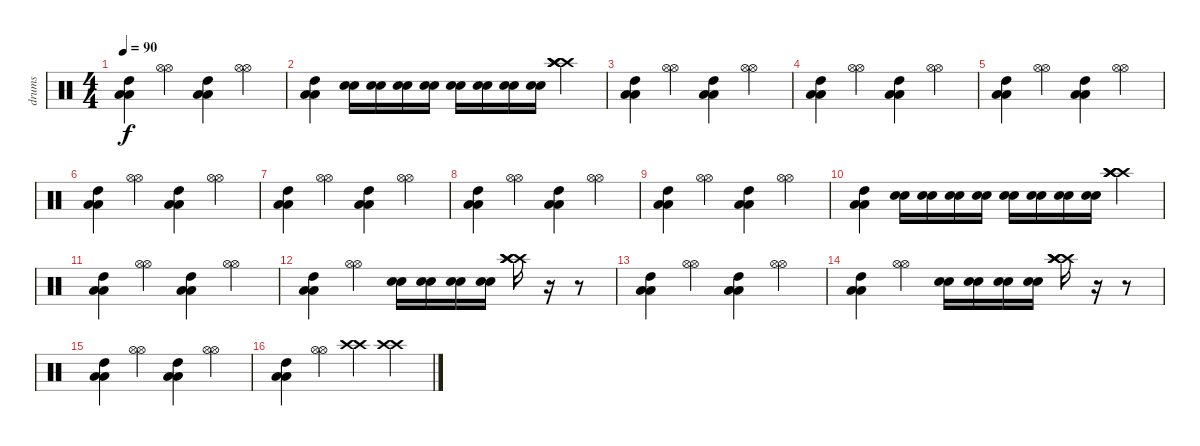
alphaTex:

\track ("drums" "drums") {instrument percussion}
\staff {score}
\articulation defaults
\ts (4 4)
\tempo 90
\clef neutral
\ks c
("High Tom (hit)" "Low Floor Tom (hit)" "Low Floor Tom (hit)").4{dy f} ("Hi-Hat (open)" "Hi-Hat (open)").4 ("High Tom (hit)" "Low Floor Tom (hit)" "Low Floor Tom (hit)").4 ("Hi-Hat (open)" "Hi-Hat (open)").4 |
("High Tom (hit)" "Low Floor Tom (hit)" "Low Floor Tom (hit)").4 ("Electric Snare (hit)" "Electric Snare (hit)").16 ("Electric Snare (hit)" "Electric Snare (hit)").16 ("Electric Snare (hit)" "Electric Snare (hit)").16 ("Electric Snare (hit)" "Electric Snare (hit)").16 ("Electric Snare (hit)" "Electric Snare (hit)").16 ("Electric Snare (hit)" "Electric Snare (hit)").16 ("Electric Snare (hit)" "Electric Snare (hit)").16 ("Electric Snare (hit)" "Electric Snare (hit)").16 ("Crash high (hit)" "Crash high (hit)" "Crash high (hit)" "Crash high (hit)").4 |
("High Tom (hit)" "Low Floor Tom (hit)" "Low Floor Tom (hit)").4 ("Hi-Hat (open)" "Hi-Hat (open)").4 ("High Tom (hit)" "Low Floor Tom (hit)" "Low Floor Tom (hit)").4 ("Hi-Hat (open)" "Hi-Hat (open)").4 |
("High Tom (hit)" "Low Floor Tom (hit)" "Low Floor Tom (hit)").4 ("Hi-Hat (open)" "Hi-Hat (open)").4 ("High Tom (hit)" "Low Floor Tom (hit)" "Low Floor Tom (hit)").4 ("Hi-Hat (open)" "Hi-Hat (open)").4 |
("High Tom (hit)" "Low Floor Tom (hit)" "Low Floor Tom (hit)").4 ("Hi-Hat (open)" "Hi-Hat (open)").4 ("High Tom (hit)" "Low Floor Tom (hit)" "Low Floor Tom (hit)").4 ("Hi-Hat (open)" "Hi-Hat (open)").4 |
("High Tom (hit)" "Low Floor Tom (hit)" "Low Floor Tom (hit)").4 ("Hi-Hat (open)" "Hi-Hat (open)").4 ("High Tom (hit)" "Low Floor Tom (hit)" "Low Floor Tom (hit)").4 ("Hi-Hat (open)" "Hi-Hat (open)").4 |
("High Tom (hit)" "Low Floor Tom (hit)" "Low Floor Tom (hit)").4 ("Hi-Hat (open)" "Hi-Hat (open)").4 ("High Tom (hit)" "Low Floor Tom (hit)" "Low Floor Tom (hit)").4 ("Hi-Hat (open)" "Hi-Hat (open)").4 |
("High Tom (hit)" "Low Floor Tom (hit)" "Low Floor Tom (hit)").4 ("Hi-Hat (open)" "Hi-Hat (open)").4 ("High Tom (hit)" "Low Floor Tom (hit)" "Low Floor Tom (hit)").4 ("Hi-Hat (open)" "Hi-Hat (open)").4 |
("High Tom (hit)" "Low Floor Tom (hit)" "Low Floor Tom (hit)").4 ("Hi-Hat (open)" "Hi-Hat (open)").4 ("High Tom (hit)" "Low Floor Tom (hit)" "Low Floor Tom (hit)").4 ("Hi-Hat (open)" "Hi-Hat (open)").4 |
("High Tom (hit)" "Low Floor Tom (hit)" "Low Floor Tom (hit)").4 ("Electric Snare (hit)" "Electric Snare (hit)").16 ("Electric Snare (hit)" "Electric Snare (hit)").16 ("Electric Snare (hit)" "Electric Snare (hit)").16 ("Electric Snare (hit)" "Electric Snare (hit)").16 ("Electric Snare (hit)" "Electric Snare (hit)").16 ("Electric Snare (hit)" "Electric Snare (hit)").16 ("Electric Snare (hit)" "Electric Snare (hit)").16 ("Electric Snare (hit)" "Electric Snare (hit)").16 ("Crash high (hit)" "Crash high (hit)" "Crash high (hit)" "Crash high (hit)").4 |
("High Tom (hit)" "Low Floor Tom (hit)" "Low Floor Tom (hit)").4 ("Hi-Hat (open)" "Hi-Hat (open)").4 ("High Tom (hit)" "Low Floor Tom (hit)" "Low Floor Tom (hit)").4 ("Hi-Hat (open)" "Hi-Hat (open)").4 |
("High Tom (hit)" "Low Floor Tom (hit)" "Low Floor Tom (hit)").4 ("Hi-Hat (open)" "Hi-Hat (open)").4 ("Electric Snare (hit)" "Electric Snare (hit)").16 ("Electric Snare (hit)" "Electric Snare (hit)").16 ("Electric Snare (hit)" "Electric Snare (hit)").16 ("Electric Snare (hit)" "Electric Snare (hit)").16 ("Crash high (hit)" "Crash high (hit)" "Crash high (hit)" "Crash high (hit)").16 r.16 r.8 |
("High Tom (hit)" "Low Floor Tom (hit)" "Low Floor Tom (hit)").4 ("Hi-Hat (open)" "Hi-Hat (open)").4 ("High Tom (hit)" "Low Floor Tom (hit)" "Low Floor Tom (hit)").4 ("Hi-Hat (open)" "Hi-Hat (open)").4 |
("High Tom (hit)" "Low Floor Tom (hit)" "Low Floor Tom (hit)").4 ("Hi-Hat (open)" "Hi-Hat (open)").4 ("Electric Snare (hit)" "Electric Snare (hit)").16 ("Electric Snare (hit)" "Electric Snare (hit)").16 ("Electric Snare (hit)" "Electric Snare (hit)").16 ("Electric Snare (hit)" "Electric Snare (hit)").16 ("Crash high (hit)" "Crash high (hit)" "Crash high (hit)" "Crash high (hit)").16 r.16 r.8 |
("High Tom (hit)" "Low Floor Tom (hit)" "Low Floor Tom (hit)").4 ("Hi-Hat (open)" "Hi-Hat (open)").4 ("High Tom (hit)" "Low Floor Tom (hit)" "Low Floor Tom (hit)").4 ("Hi-Hat (open)" "Hi-Hat (open)").4 |
("High Tom (hit)" "Low Floor Tom (hit)" "Low Floor Tom (hit)").4 ("Hi-Hat (open)" "Hi-Hat (open)").4 ("Crash high (hit)" "Crash high (hit)").4 ("Crash high (hit)" "Crash high (hit)").4
